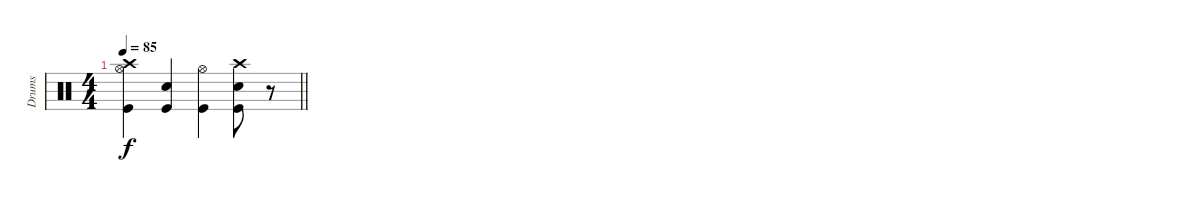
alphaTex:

\track ("Drums" "Drums") {instrument percussion}
\staff {score}
\articulation defaults
\ts (4 4)
\tempo 85
\clef neutral
\barLineRight lightlight
\ks c
("Crash high (hit)" "Hi-Hat (open)" "Kick (hit)").4{dy f} ("Snare (hit) 2" "Kick (hit)").4 ("Hi-Hat (open)" "Kick (hit)").4 ("Crash high (hit)" "Snare (hit) 2" "Kick (hit)").8 r.8
